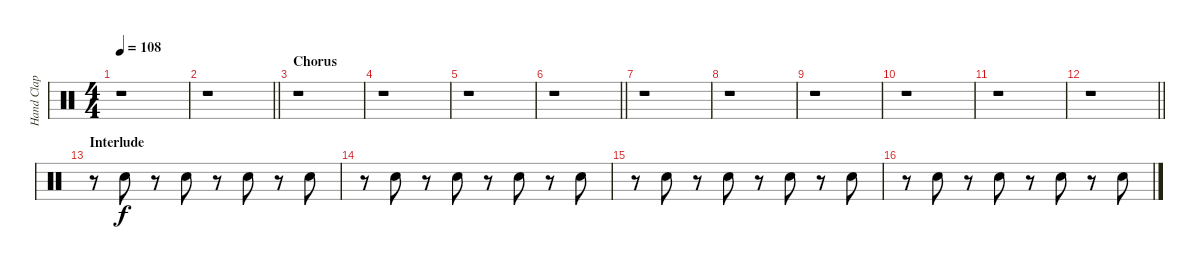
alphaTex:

\track ("Hand Clap" "Hand Clap") {instrument percussion}
\staff {score}
\articulation defaults
\ts (4 4)
\tempo 108
\clef neutral
\ks c
r.1{dy f} |
\barLineRight lightlight
r.1 |
\section ("" "Chorus")
r.1 |
r.1 |
r.1 |
\barLineRight lightlight
r.1 |
r.1 |
r.1 |
r.1 |
r.1 |
r.1 |
\barLineRight lightlight
r.1 |
\section ("" "Interlude")
r.8 "Hand Clap (hit)".8 r.8 "Hand Clap (hit)".8 r.8 "Hand Clap (hit)".8 r.8 "Hand Clap (hit)".8 |
r.8 "Hand Clap (hit)".8 r.8 "Hand Clap (hit)".8 r.8 "Hand Clap (hit)".8 r.8 "Hand Clap (hit)".8 |
r.8 "Hand Clap (hit)".8 r.8 "Hand Clap (hit)".8 r.8 "Hand Clap (hit)".8 r.8 "Hand Clap (hit)".8 |
r.8 "Hand Clap (hit)".8 r.8 "Hand Clap (hit)".8 r.8 "Hand Clap (hit)".8 r.8 "Hand Clap (hit)".8
